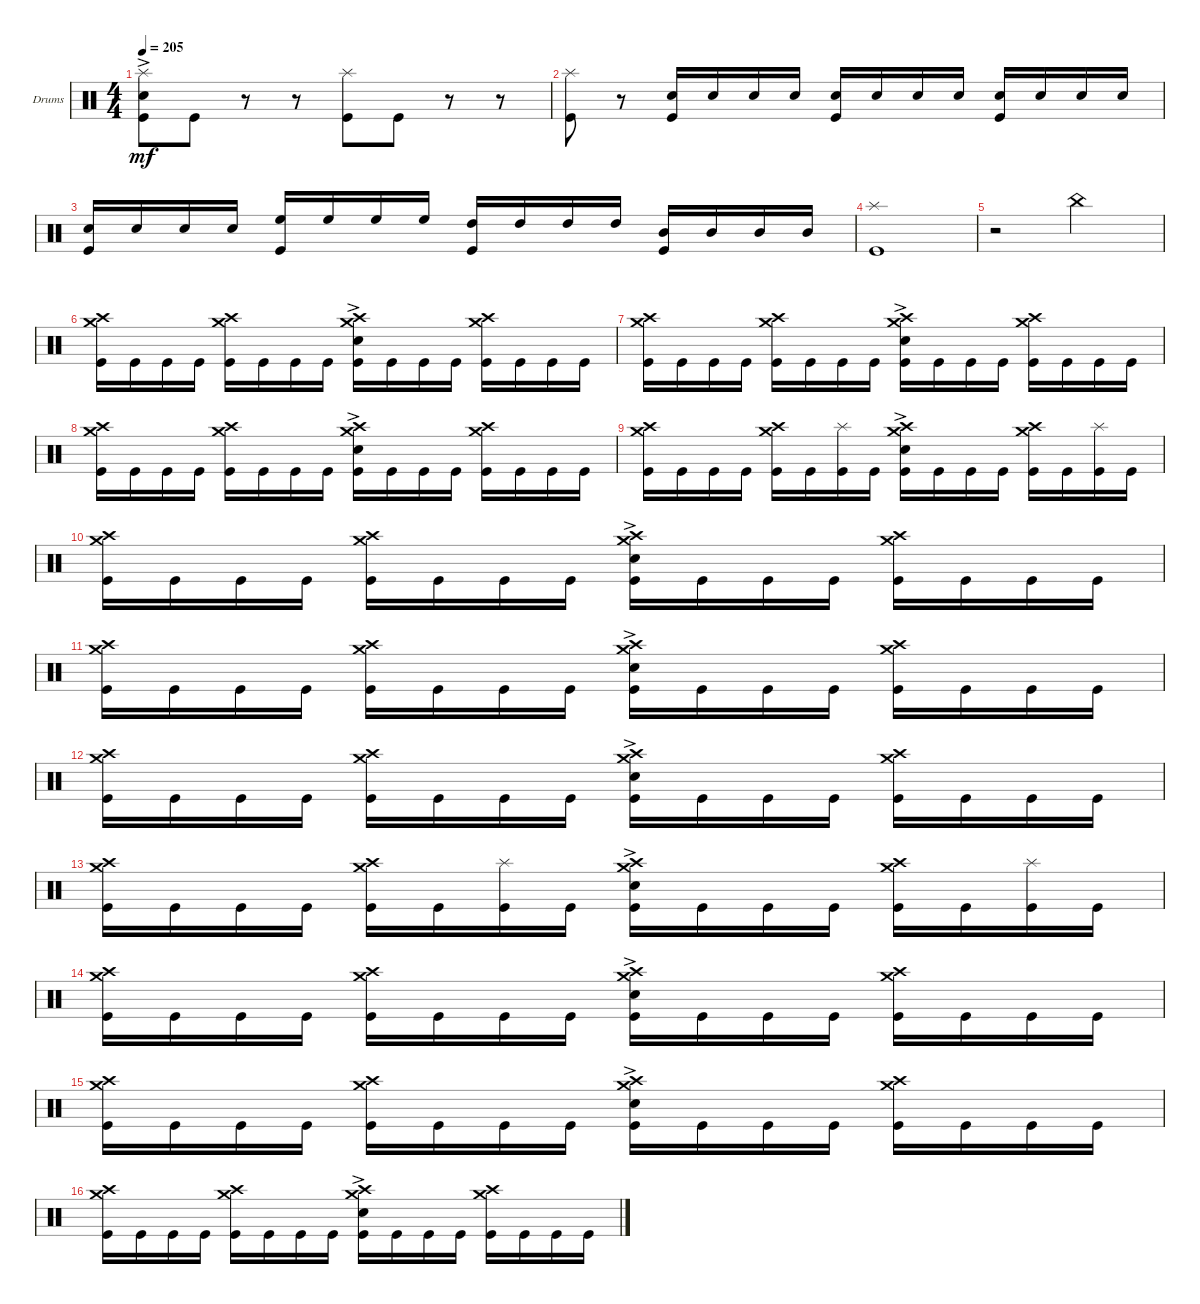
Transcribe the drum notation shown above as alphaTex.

\defaultSystemsLayout 4
\bracketExtendMode groupsimilarinstruments
\firstSystemTrackNameOrientation horizontal
\otherSystemsTrackNameOrientation horizontal
\track ("Drumkit" "Drums") {instrument percussion}
\staff {score}
\articulation defaults
\ts (4 4)
\tempo 205
\clef neutral
\ks c
("Snare (hit) 2"{ac} "Kick (hit)" "Splash (hit)").8{dy mf} "Kick (hit)".8 r.8 r.8 ("Kick (hit)" "Splash (hit)").8 "Kick (hit)".8 r.8 r.8 |
("Kick (hit)" "Splash (hit)").8 r.8 ("Snare (hit) 2" "Kick (hit)").16 "Snare (hit) 2".16 "Snare (hit) 2".16 "Snare (hit) 2".16 ("Snare (hit) 2" "Kick (hit)").16 "Snare (hit) 2".16 "Snare (hit) 2".16 "Snare (hit) 2".16 ("Snare (hit) 2" "Kick (hit)").16 "Snare (hit) 2".16 "Snare (hit) 2".16 "Snare (hit) 2".16 |
("Snare (hit) 2" "Kick (hit)").16 "Snare (hit) 2".16 "Snare (hit) 2".16 "Snare (hit) 2".16 ("High Floor Tom (hit)" "Kick (hit)").16 "High Floor Tom (hit)".16 "High Floor Tom (hit)".16 "High Floor Tom (hit)".16 ("High Tom (hit)" "Kick (hit)").16 "High Tom (hit)".16 "High Tom (hit)".16 "High Tom (hit)".16 ("Mid Tom (hit)" "Kick (hit)").16 "Mid Tom (hit)".16 "Mid Tom (hit)".16 "Mid Tom (hit)".16 |
("Kick (hit)" "Splash (hit)").1 |
r.2 "China (hit)".2 |
("Kick (hit)" "Crash medium (hit)" "Crash high (hit)").16 "Kick (hit)".16 "Kick (hit)".16 "Kick (hit)".16 ("Kick (hit)" "Crash medium (hit)" "Crash high (hit)").16 "Kick (hit)".16 "Kick (hit)".16 "Kick (hit)".16 ("Snare (hit) 2"{ac} "Kick (hit)" "Crash medium (hit)" "Crash high (hit)").16 "Kick (hit)".16 "Kick (hit)".16 "Kick (hit)".16 ("Kick (hit)" "Crash high (hit)" "Crash medium (hit)").16 "Kick (hit)".16 "Kick (hit)".16 "Kick (hit)".16 |
("Kick (hit)" "Crash medium (hit)" "Crash high (hit)").16 "Kick (hit)".16 "Kick (hit)".16 "Kick (hit)".16 ("Kick (hit)" "Crash medium (hit)" "Crash high (hit)").16 "Kick (hit)".16 "Kick (hit)".16 "Kick (hit)".16 ("Snare (hit) 2"{ac} "Kick (hit)" "Crash medium (hit)" "Crash high (hit)").16 "Kick (hit)".16 "Kick (hit)".16 "Kick (hit)".16 ("Kick (hit)" "Crash high (hit)" "Crash medium (hit)").16 "Kick (hit)".16 "Kick (hit)".16 "Kick (hit)".16 |
("Kick (hit)" "Crash medium (hit)" "Crash high (hit)").16 "Kick (hit)".16 "Kick (hit)".16 "Kick (hit)".16 ("Kick (hit)" "Crash medium (hit)" "Crash high (hit)").16 "Kick (hit)".16 "Kick (hit)".16 "Kick (hit)".16 ("Snare (hit) 2"{ac} "Kick (hit)" "Crash medium (hit)" "Crash high (hit)").16 "Kick (hit)".16 "Kick (hit)".16 "Kick (hit)".16 ("Kick (hit)" "Crash high (hit)" "Crash medium (hit)").16 "Kick (hit)".16 "Kick (hit)".16 "Kick (hit)".16 |
("Kick (hit)" "Crash medium (hit)" "Crash high (hit)").16 "Kick (hit)".16 "Kick (hit)".16 "Kick (hit)".16 ("Kick (hit)" "Crash medium (hit)" "Crash high (hit)").16 "Kick (hit)".16 ("Kick (hit)" "Splash (hit)").16 "Kick (hit)".16 ("Snare (hit) 2"{ac} "Kick (hit)" "Crash medium (hit)" "Crash high (hit)").16 "Kick (hit)".16 "Kick (hit)".16 "Kick (hit)".16 ("Kick (hit)" "Crash high (hit)" "Crash medium (hit)").16 "Kick (hit)".16 ("Kick (hit)" "Splash (hit)").16 "Kick (hit)".16 |
("Kick (hit)" "Crash medium (hit)" "Crash high (hit)").16 "Kick (hit)".16 "Kick (hit)".16 "Kick (hit)".16 ("Kick (hit)" "Crash medium (hit)" "Crash high (hit)").16 "Kick (hit)".16 "Kick (hit)".16 "Kick (hit)".16 ("Snare (hit) 2"{ac} "Kick (hit)" "Crash medium (hit)" "Crash high (hit)").16 "Kick (hit)".16 "Kick (hit)".16 "Kick (hit)".16 ("Kick (hit)" "Crash high (hit)" "Crash medium (hit)").16 "Kick (hit)".16 "Kick (hit)".16 "Kick (hit)".16 |
("Kick (hit)" "Crash medium (hit)" "Crash high (hit)").16 "Kick (hit)".16 "Kick (hit)".16 "Kick (hit)".16 ("Kick (hit)" "Crash medium (hit)" "Crash high (hit)").16 "Kick (hit)".16 "Kick (hit)".16 "Kick (hit)".16 ("Snare (hit) 2"{ac} "Kick (hit)" "Crash medium (hit)" "Crash high (hit)").16 "Kick (hit)".16 "Kick (hit)".16 "Kick (hit)".16 ("Kick (hit)" "Crash high (hit)" "Crash medium (hit)").16 "Kick (hit)".16 "Kick (hit)".16 "Kick (hit)".16 |
("Kick (hit)" "Crash medium (hit)" "Crash high (hit)").16 "Kick (hit)".16 "Kick (hit)".16 "Kick (hit)".16 ("Kick (hit)" "Crash medium (hit)" "Crash high (hit)").16 "Kick (hit)".16 "Kick (hit)".16 "Kick (hit)".16 ("Snare (hit) 2"{ac} "Kick (hit)" "Crash medium (hit)" "Crash high (hit)").16 "Kick (hit)".16 "Kick (hit)".16 "Kick (hit)".16 ("Kick (hit)" "Crash high (hit)" "Crash medium (hit)").16 "Kick (hit)".16 "Kick (hit)".16 "Kick (hit)".16 |
("Kick (hit)" "Crash medium (hit)" "Crash high (hit)").16 "Kick (hit)".16 "Kick (hit)".16 "Kick (hit)".16 ("Kick (hit)" "Crash medium (hit)" "Crash high (hit)").16 "Kick (hit)".16 ("Kick (hit)" "Splash (hit)").16 "Kick (hit)".16 ("Snare (hit) 2"{ac} "Kick (hit)" "Crash medium (hit)" "Crash high (hit)").16 "Kick (hit)".16 "Kick (hit)".16 "Kick (hit)".16 ("Kick (hit)" "Crash high (hit)" "Crash medium (hit)").16 "Kick (hit)".16 ("Kick (hit)" "Splash (hit)").16 "Kick (hit)".16 |
("Kick (hit)" "Crash medium (hit)" "Crash high (hit)").16 "Kick (hit)".16 "Kick (hit)".16 "Kick (hit)".16 ("Kick (hit)" "Crash medium (hit)" "Crash high (hit)").16 "Kick (hit)".16 "Kick (hit)".16 "Kick (hit)".16 ("Snare (hit) 2"{ac} "Kick (hit)" "Crash medium (hit)" "Crash high (hit)").16 "Kick (hit)".16 "Kick (hit)".16 "Kick (hit)".16 ("Kick (hit)" "Crash high (hit)" "Crash medium (hit)").16 "Kick (hit)".16 "Kick (hit)".16 "Kick (hit)".16 |
("Kick (hit)" "Crash medium (hit)" "Crash high (hit)").16 "Kick (hit)".16 "Kick (hit)".16 "Kick (hit)".16 ("Kick (hit)" "Crash medium (hit)" "Crash high (hit)").16 "Kick (hit)".16 "Kick (hit)".16 "Kick (hit)".16 ("Snare (hit) 2"{ac} "Kick (hit)" "Crash medium (hit)" "Crash high (hit)").16 "Kick (hit)".16 "Kick (hit)".16 "Kick (hit)".16 ("Kick (hit)" "Crash high (hit)" "Crash medium (hit)").16 "Kick (hit)".16 "Kick (hit)".16 "Kick (hit)".16 |
("Kick (hit)" "Crash medium (hit)" "Crash high (hit)").16 "Kick (hit)".16 "Kick (hit)".16 "Kick (hit)".16 ("Kick (hit)" "Crash medium (hit)" "Crash high (hit)").16 "Kick (hit)".16 "Kick (hit)".16 "Kick (hit)".16 ("Snare (hit) 2"{ac} "Kick (hit)" "Crash medium (hit)" "Crash high (hit)").16 "Kick (hit)".16 "Kick (hit)".16 "Kick (hit)".16 ("Kick (hit)" "Crash high (hit)" "Crash medium (hit)").16 "Kick (hit)".16 "Kick (hit)".16 "Kick (hit)".16
